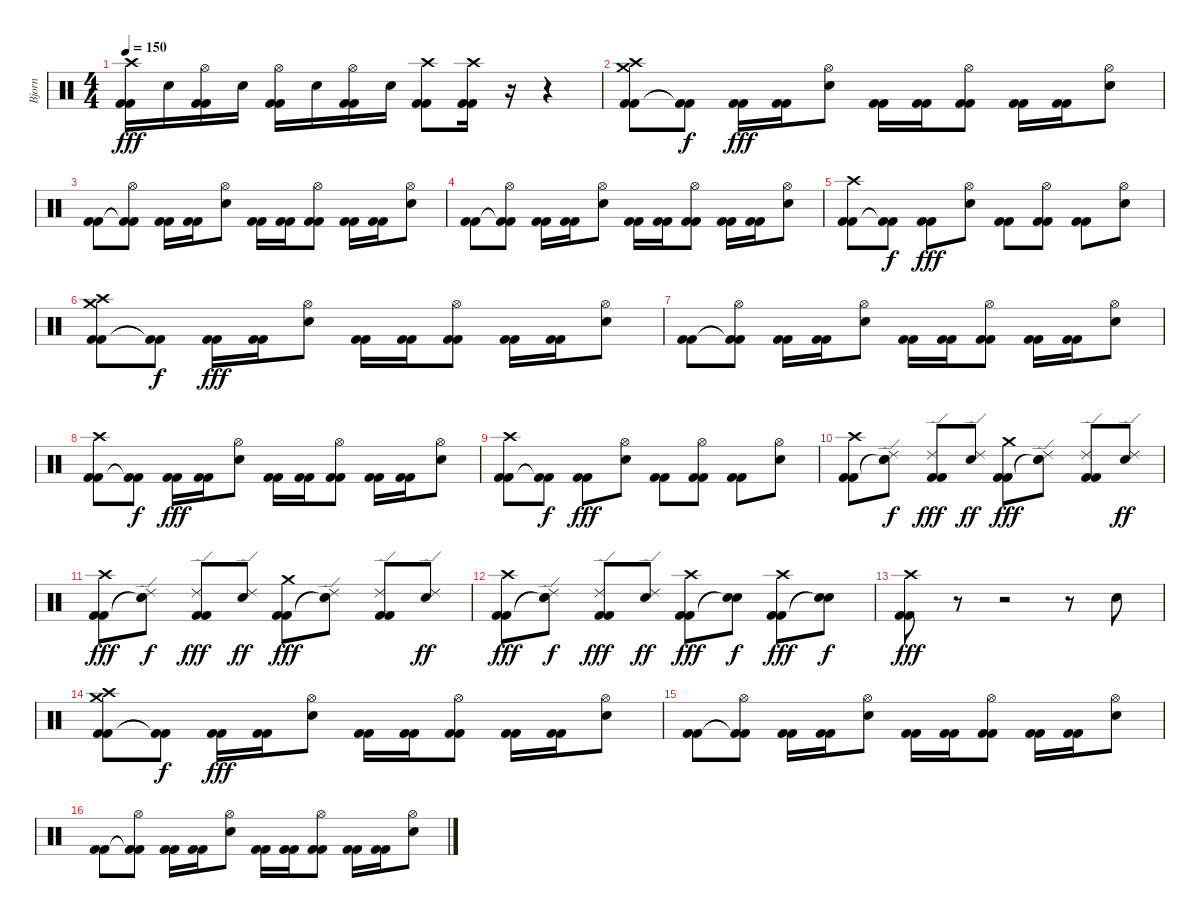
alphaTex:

\track ("Bjorn" "Bjorn") {instrument percussion}
\staff {score}
\articulation defaults
\ts (4 4)
\tempo 150
\clef neutral
\ks c
("Kick (hit) 2" "Kick (hit) 2" "Crash high (hit)").16{dy fff} "Snare (hit) 2".16 ("Kick (hit) 2" "Kick (hit) 2" "Hi-Hat (open)").16 "Snare (hit) 2".16 ("Kick (hit) 2" "Kick (hit) 2" "Hi-Hat (open)").16 "Snare (hit) 2".16 ("Kick (hit) 2" "Kick (hit) 2" "Hi-Hat (open)").16 "Snare (hit) 2".16 ("Kick (hit) 2" "Kick (hit) 2" "Crash high (hit)").8 ("Kick (hit) 2" "Kick (hit) 2" "Crash high (hit)").16 r.16 r.4 |
("Kick (hit) 2" "Kick (hit) 2" "Crash high (hit)" "Crash medium (hit)").8 ("Kick (hit) 2"{t} "Kick (hit) 2"{t}).8{dy f} ("Kick (hit) 2" "Kick (hit) 2").16{dy fff} ("Kick (hit) 2" "Kick (hit) 2").16 ("Snare (hit) 2" "Hi-Hat (open)").8 ("Kick (hit) 2" "Kick (hit) 2").16 ("Kick (hit) 2" "Kick (hit) 2").16 ("Kick (hit) 2" "Kick (hit) 2" "Hi-Hat (open)").8 ("Kick (hit) 2" "Kick (hit) 2").16 ("Kick (hit) 2" "Kick (hit) 2").16 ("Snare (hit) 2" "Hi-Hat (open)").8 |
("Kick (hit) 2" "Kick (hit) 2").8 ("Kick (hit) 2"{t} "Kick (hit) 2"{t} "Hi-Hat (open)").8 ("Kick (hit) 2" "Kick (hit) 2").16 ("Kick (hit) 2" "Kick (hit) 2").16 ("Snare (hit) 2" "Hi-Hat (open)").8 ("Kick (hit) 2" "Kick (hit) 2").16 ("Kick (hit) 2" "Kick (hit) 2").16 ("Kick (hit) 2" "Kick (hit) 2" "Hi-Hat (open)").8 ("Kick (hit) 2" "Kick (hit) 2").16 ("Kick (hit) 2" "Kick (hit) 2").16 ("Snare (hit) 2" "Hi-Hat (open)").8 |
("Kick (hit) 2" "Kick (hit) 2").8 ("Kick (hit) 2"{t} "Kick (hit) 2"{t} "Hi-Hat (open)").8 ("Kick (hit) 2" "Kick (hit) 2").16 ("Kick (hit) 2" "Kick (hit) 2").16 ("Snare (hit) 2" "Hi-Hat (open)").8 ("Kick (hit) 2" "Kick (hit) 2").16 ("Kick (hit) 2" "Kick (hit) 2").16 ("Kick (hit) 2" "Kick (hit) 2" "Hi-Hat (open)").8 ("Kick (hit) 2" "Kick (hit) 2").16 ("Kick (hit) 2" "Kick (hit) 2").16 ("Snare (hit) 2" "Hi-Hat (open)").8 |
("Kick (hit) 2" "Kick (hit) 2" "Crash high (hit)").8 ("Kick (hit) 2"{t} "Kick (hit) 2"{t}).8{dy f} ("Kick (hit) 2" "Kick (hit) 2").8{dy fff} ("Snare (hit) 2" "Hi-Hat (open)").8 ("Kick (hit) 2" "Kick (hit) 2").8 ("Kick (hit) 2" "Kick (hit) 2" "Hi-Hat (open)").8 ("Kick (hit) 2" "Kick (hit) 2").8 ("Snare (hit) 2" "Hi-Hat (open)").8 |
("Kick (hit) 2" "Kick (hit) 2" "Crash high (hit)" "Crash medium (hit)").8 ("Kick (hit) 2"{t} "Kick (hit) 2"{t}).8{dy f} ("Kick (hit) 2" "Kick (hit) 2").16{dy fff} ("Kick (hit) 2" "Kick (hit) 2").16 ("Snare (hit) 2" "Hi-Hat (open)").8 ("Kick (hit) 2" "Kick (hit) 2").16 ("Kick (hit) 2" "Kick (hit) 2").16 ("Kick (hit) 2" "Kick (hit) 2" "Hi-Hat (open)").8 ("Kick (hit) 2" "Kick (hit) 2").16 ("Kick (hit) 2" "Kick (hit) 2").16 ("Snare (hit) 2" "Hi-Hat (open)").8 |
("Kick (hit) 2" "Kick (hit) 2").8 ("Kick (hit) 2"{t} "Kick (hit) 2"{t} "Hi-Hat (open)").8 ("Kick (hit) 2" "Kick (hit) 2").16 ("Kick (hit) 2" "Kick (hit) 2").16 ("Snare (hit) 2" "Hi-Hat (open)").8 ("Kick (hit) 2" "Kick (hit) 2").16 ("Kick (hit) 2" "Kick (hit) 2").16 ("Kick (hit) 2" "Kick (hit) 2" "Hi-Hat (open)").8 ("Kick (hit) 2" "Kick (hit) 2").16 ("Kick (hit) 2" "Kick (hit) 2").16 ("Snare (hit) 2" "Hi-Hat (open)").8 |
("Kick (hit) 2" "Kick (hit) 2" "Crash high (hit)").8 ("Kick (hit) 2"{t} "Kick (hit) 2"{t}).8{dy f} ("Kick (hit) 2" "Kick (hit) 2").16{dy fff} ("Kick (hit) 2" "Kick (hit) 2").16 ("Snare (hit) 2" "Hi-Hat (open)").8 ("Kick (hit) 2" "Kick (hit) 2").16 ("Kick (hit) 2" "Kick (hit) 2").16 ("Kick (hit) 2" "Kick (hit) 2" "Hi-Hat (open)").8 ("Kick (hit) 2" "Kick (hit) 2").16 ("Kick (hit) 2" "Kick (hit) 2").16 ("Snare (hit) 2" "Hi-Hat (open)").8 |
("Kick (hit) 2" "Kick (hit) 2" "Crash high (hit)").8 ("Kick (hit) 2"{t} "Kick (hit) 2"{t}).8{dy f} ("Kick (hit) 2" "Kick (hit) 2").8{dy fff} ("Snare (hit) 2" "Hi-Hat (open)").8 ("Kick (hit) 2" "Kick (hit) 2").8 ("Kick (hit) 2" "Kick (hit) 2" "Hi-Hat (open)").8 ("Kick (hit) 2" "Kick (hit) 2").8 ("Snare (hit) 2" "Hi-Hat (open)").8 |
("Kick (hit) 2" "Kick (hit) 2" "Crash high (hit)").8 ("Snare (hit)"{t} "Snare (hit)"{t} "Ride (edge) 2").8{dy f} ("Kick (hit) 2" "Kick (hit) 2" "Ride (edge) 2").8{dy fff} ("Snare (hit) 2" "Ride (edge) 2").8{dy ff} ("Kick (hit) 2" "Kick (hit) 2" "Crash medium (hit)").8{dy fff} ("Snare (hit)"{t} "Snare (hit)"{t} "Ride (edge) 2").8 ("Kick (hit) 2" "Kick (hit) 2" "Ride (edge) 2").8 ("Snare (hit) 2" "Ride (edge) 2").8{dy ff} |
("Kick (hit) 2" "Kick (hit) 2" "Crash high (hit)").8{dy fff} ("Snare (hit)"{t} "Snare (hit)"{t} "Ride (edge) 2").8{dy f} ("Kick (hit) 2" "Kick (hit) 2" "Ride (edge) 2").8{dy fff} ("Snare (hit) 2" "Ride (edge) 2").8{dy ff} ("Kick (hit) 2" "Kick (hit) 2" "Crash medium (hit)").8{dy fff} ("Snare (hit)"{t} "Snare (hit)"{t} "Ride (edge) 2").8 ("Kick (hit) 2" "Kick (hit) 2" "Ride (edge) 2").8 ("Snare (hit) 2" "Ride (edge) 2").8{dy ff} |
("Kick (hit) 2" "Kick (hit) 2" "Crash high (hit)").8{dy fff} ("Snare (hit)"{t} "Snare (hit)"{t} "Ride (edge) 2").8{dy f} ("Kick (hit) 2" "Kick (hit) 2" "Ride (edge) 2").8{dy fff} ("Snare (hit) 2" "Ride (edge) 2").8{dy ff} ("Kick (hit) 2" "Kick (hit) 2" "Crash high (hit)").8{dy fff} ("Snare (hit)"{t} "Snare (hit)"{t}).8{dy f} ("Kick (hit) 2" "Kick (hit) 2" "Crash high (hit)").8{dy fff} ("Snare (hit)"{t} "Snare (hit)"{t}).8{dy f} |
("Kick (hit) 2" "Kick (hit) 2" "Crash high (hit)").8{dy fff} r.8 r.2 r.8 "Snare (hit) 2".8 |
("Kick (hit) 2" "Kick (hit) 2" "Crash high (hit)" "Crash medium (hit)").8 ("Kick (hit) 2"{t} "Kick (hit) 2"{t}).8{dy f} ("Kick (hit) 2" "Kick (hit) 2").16{dy fff} ("Kick (hit) 2" "Kick (hit) 2").16 ("Snare (hit) 2" "Hi-Hat (open)").8 ("Kick (hit) 2" "Kick (hit) 2").16 ("Kick (hit) 2" "Kick (hit) 2").16 ("Kick (hit) 2" "Kick (hit) 2" "Hi-Hat (open)").8 ("Kick (hit) 2" "Kick (hit) 2").16 ("Kick (hit) 2" "Kick (hit) 2").16 ("Snare (hit) 2" "Hi-Hat (open)").8 |
("Kick (hit) 2" "Kick (hit) 2").8 ("Kick (hit) 2"{t} "Kick (hit) 2"{t} "Hi-Hat (open)").8 ("Kick (hit) 2" "Kick (hit) 2").16 ("Kick (hit) 2" "Kick (hit) 2").16 ("Snare (hit) 2" "Hi-Hat (open)").8 ("Kick (hit) 2" "Kick (hit) 2").16 ("Kick (hit) 2" "Kick (hit) 2").16 ("Kick (hit) 2" "Kick (hit) 2" "Hi-Hat (open)").8 ("Kick (hit) 2" "Kick (hit) 2").16 ("Kick (hit) 2" "Kick (hit) 2").16 ("Snare (hit) 2" "Hi-Hat (open)").8 |
("Kick (hit) 2" "Kick (hit) 2").8 ("Kick (hit) 2"{t} "Kick (hit) 2"{t} "Hi-Hat (open)").8 ("Kick (hit) 2" "Kick (hit) 2").16 ("Kick (hit) 2" "Kick (hit) 2").16 ("Snare (hit) 2" "Hi-Hat (open)").8 ("Kick (hit) 2" "Kick (hit) 2").16 ("Kick (hit) 2" "Kick (hit) 2").16 ("Kick (hit) 2" "Kick (hit) 2" "Hi-Hat (open)").8 ("Kick (hit) 2" "Kick (hit) 2").16 ("Kick (hit) 2" "Kick (hit) 2").16 ("Snare (hit) 2" "Hi-Hat (open)").8
